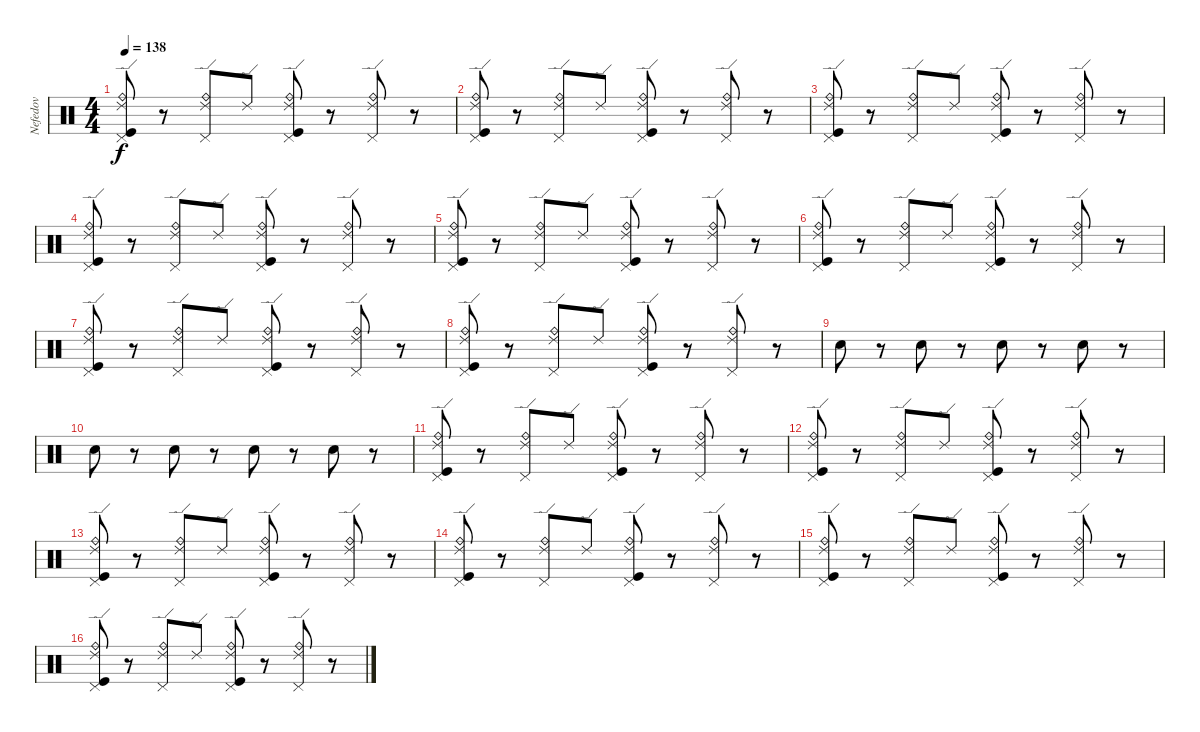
\track ("Nefedov" "Nefedov") {instrument percussion}
\staff {score}
\articulation defaults
\ts (4 4)
\tempo 138
\clef neutral
\ks c
("Pedal Hi-Hat (hit)" "Ride (edge) 2" "Kick (hit)" "Ride (bell)").8{dy f} r.8 ("Pedal Hi-Hat (hit)" "Ride (edge) 2" "Ride (bell)").8 "Ride (edge) 2".8 ("Pedal Hi-Hat (hit)" "Ride (edge) 2" "Kick (hit)" "Ride (bell)").8 r.8 ("Pedal Hi-Hat (hit)" "Ride (edge) 2" "Ride (bell)").8 r.8 |
("Pedal Hi-Hat (hit)" "Ride (edge) 2" "Kick (hit)" "Ride (bell)").8 r.8 ("Pedal Hi-Hat (hit)" "Ride (edge) 2" "Ride (bell)").8 "Ride (edge) 2".8 ("Pedal Hi-Hat (hit)" "Ride (edge) 2" "Kick (hit)" "Ride (bell)").8 r.8 ("Pedal Hi-Hat (hit)" "Ride (edge) 2" "Ride (bell)").8 r.8 |
("Pedal Hi-Hat (hit)" "Ride (edge) 2" "Kick (hit)" "Ride (bell)").8 r.8 ("Pedal Hi-Hat (hit)" "Ride (edge) 2" "Ride (bell)").8 "Ride (edge) 2".8 ("Pedal Hi-Hat (hit)" "Ride (edge) 2" "Kick (hit)" "Ride (bell)").8 r.8 ("Pedal Hi-Hat (hit)" "Ride (edge) 2" "Ride (bell)").8 r.8 |
("Pedal Hi-Hat (hit)" "Ride (edge) 2" "Kick (hit)" "Ride (bell)").8 r.8 ("Pedal Hi-Hat (hit)" "Ride (edge) 2" "Ride (bell)").8 "Ride (edge) 2".8 ("Pedal Hi-Hat (hit)" "Ride (edge) 2" "Kick (hit)" "Ride (bell)").8 r.8 ("Pedal Hi-Hat (hit)" "Ride (edge) 2" "Ride (bell)").8 r.8 |
("Pedal Hi-Hat (hit)" "Ride (edge) 2" "Kick (hit)" "Ride (bell)").8 r.8 ("Pedal Hi-Hat (hit)" "Ride (edge) 2" "Ride (bell)").8 "Ride (edge) 2".8 ("Pedal Hi-Hat (hit)" "Ride (edge) 2" "Kick (hit)" "Ride (bell)").8 r.8 ("Pedal Hi-Hat (hit)" "Ride (edge) 2" "Ride (bell)").8 r.8 |
("Pedal Hi-Hat (hit)" "Ride (edge) 2" "Kick (hit)" "Ride (bell)").8 r.8 ("Pedal Hi-Hat (hit)" "Ride (edge) 2" "Ride (bell)").8 "Ride (edge) 2".8 ("Pedal Hi-Hat (hit)" "Ride (edge) 2" "Kick (hit)" "Ride (bell)").8 r.8 ("Pedal Hi-Hat (hit)" "Ride (edge) 2" "Ride (bell)").8 r.8 |
("Pedal Hi-Hat (hit)" "Ride (edge) 2" "Kick (hit)" "Ride (bell)").8 r.8 ("Pedal Hi-Hat (hit)" "Ride (edge) 2" "Ride (bell)").8 "Ride (edge) 2".8 ("Pedal Hi-Hat (hit)" "Ride (edge) 2" "Kick (hit)" "Ride (bell)").8 r.8 ("Pedal Hi-Hat (hit)" "Ride (edge) 2" "Ride (bell)").8 r.8 |
("Pedal Hi-Hat (hit)" "Ride (edge) 2" "Kick (hit)" "Ride (bell)").8 r.8 ("Pedal Hi-Hat (hit)" "Ride (edge) 2" "Ride (bell)").8 "Ride (edge) 2".8 ("Pedal Hi-Hat (hit)" "Ride (edge) 2" "Kick (hit)" "Ride (bell)").8 r.8 ("Pedal Hi-Hat (hit)" "Ride (edge) 2" "Ride (bell)").8 r.8 |
"Electric Snare (hit)".8 r.8 "Electric Snare (hit)".8 r.8 "Electric Snare (hit)".8 r.8 "Electric Snare (hit)".8 r.8 |
"Electric Snare (hit)".8 r.8 "Electric Snare (hit)".8 r.8 "Electric Snare (hit)".8 r.8 "Electric Snare (hit)".8 r.8 |
("Pedal Hi-Hat (hit)" "Ride (edge) 2" "Kick (hit)" "Ride (bell)").8 r.8 ("Pedal Hi-Hat (hit)" "Ride (edge) 2" "Ride (bell)").8 "Ride (edge) 2".8 ("Pedal Hi-Hat (hit)" "Ride (edge) 2" "Kick (hit)" "Ride (bell)").8 r.8 ("Pedal Hi-Hat (hit)" "Ride (edge) 2" "Ride (bell)").8 r.8 |
("Pedal Hi-Hat (hit)" "Ride (edge) 2" "Kick (hit)" "Ride (bell)").8 r.8 ("Pedal Hi-Hat (hit)" "Ride (edge) 2" "Ride (bell)").8 "Ride (edge) 2".8 ("Pedal Hi-Hat (hit)" "Ride (edge) 2" "Kick (hit)" "Ride (bell)").8 r.8 ("Pedal Hi-Hat (hit)" "Ride (edge) 2" "Ride (bell)").8 r.8 |
("Pedal Hi-Hat (hit)" "Ride (edge) 2" "Kick (hit)" "Ride (bell)").8 r.8 ("Pedal Hi-Hat (hit)" "Ride (edge) 2" "Ride (bell)").8 "Ride (edge) 2".8 ("Pedal Hi-Hat (hit)" "Ride (edge) 2" "Kick (hit)" "Ride (bell)").8 r.8 ("Pedal Hi-Hat (hit)" "Ride (edge) 2" "Ride (bell)").8 r.8 |
("Pedal Hi-Hat (hit)" "Ride (edge) 2" "Kick (hit)" "Ride (bell)").8 r.8 ("Pedal Hi-Hat (hit)" "Ride (edge) 2" "Ride (bell)").8 "Ride (edge) 2".8 ("Pedal Hi-Hat (hit)" "Ride (edge) 2" "Kick (hit)" "Ride (bell)").8 r.8 ("Pedal Hi-Hat (hit)" "Ride (edge) 2" "Ride (bell)").8 r.8 |
("Pedal Hi-Hat (hit)" "Ride (edge) 2" "Kick (hit)" "Ride (bell)").8 r.8 ("Pedal Hi-Hat (hit)" "Ride (edge) 2" "Ride (bell)").8 "Ride (edge) 2".8 ("Pedal Hi-Hat (hit)" "Ride (edge) 2" "Kick (hit)" "Ride (bell)").8 r.8 ("Pedal Hi-Hat (hit)" "Ride (edge) 2" "Ride (bell)").8 r.8 |
("Pedal Hi-Hat (hit)" "Ride (edge) 2" "Kick (hit)" "Ride (bell)").8 r.8 ("Pedal Hi-Hat (hit)" "Ride (edge) 2" "Ride (bell)").8 "Ride (edge) 2".8 ("Pedal Hi-Hat (hit)" "Ride (edge) 2" "Kick (hit)" "Ride (bell)").8 r.8 ("Pedal Hi-Hat (hit)" "Ride (edge) 2" "Ride (bell)").8 r.8
